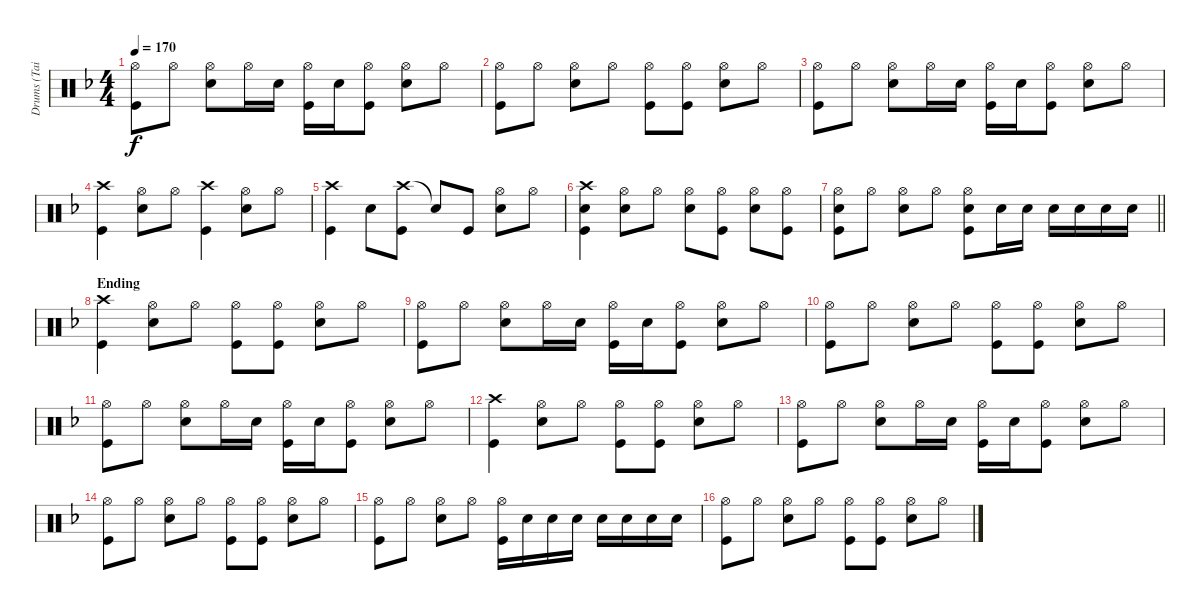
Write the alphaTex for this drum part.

\track ("Drums (Tainaka Ritsu)" "Drums (Tai") {instrument percussion}
\staff {score}
\articulation defaults
\ts (4 4)
\tempo 170
\clef neutral
\ks f
("Hi-Hat (open)" "Kick (hit)").8{dy f} "Hi-Hat (open)".8 ("Hi-Hat (open)" "Snare (hit) 2").8 "Hi-Hat (open)".16 "Snare (hit) 2".16 ("Hi-Hat (open)" "Kick (hit)").16 "Snare (hit) 2".16 ("Hi-Hat (open)" "Kick (hit)").8 ("Hi-Hat (open)" "Snare (hit) 2").8 "Hi-Hat (open)".8 |
("Hi-Hat (open)" "Kick (hit)").8 "Hi-Hat (open)".8 ("Hi-Hat (open)" "Snare (hit) 2").8 "Hi-Hat (open)".8 ("Hi-Hat (open)" "Kick (hit)").8 ("Hi-Hat (open)" "Kick (hit)").8 ("Hi-Hat (open)" "Snare (hit) 2").8 "Hi-Hat (open)".8 |
("Hi-Hat (open)" "Kick (hit)").8 "Hi-Hat (open)".8 ("Hi-Hat (open)" "Snare (hit) 2").8 "Hi-Hat (open)".16 "Snare (hit) 2".16 ("Hi-Hat (open)" "Kick (hit)").16 "Snare (hit) 2".16 ("Hi-Hat (open)" "Kick (hit)").8 ("Hi-Hat (open)" "Snare (hit) 2").8 "Hi-Hat (open)".8 |
("Crash high (hit)" "Kick (hit)").4 ("Hi-Hat (open)" "Snare (hit) 2").8 "Hi-Hat (open)".8 ("Crash high (hit)" "Kick (hit)").4 ("Hi-Hat (open)" "Snare (hit) 2").8 "Hi-Hat (open)".8 |
("Crash high (hit)" "Kick (hit)").4 "Snare (hit) 2".8 ("Crash high (hit)" "Kick (hit)").8 "Snare (hit)"{t}.8 "Kick (hit)".8 ("Hi-Hat (open)" "Snare (hit) 2").8 "Hi-Hat (open)".8 |
("Crash high (hit)" "Snare (hit) 2" "Kick (hit)").4 ("Hi-Hat (open)" "Snare (hit) 2").8 "Hi-Hat (open)".8 ("Hi-Hat (open)" "Snare (hit) 2").8 ("Hi-Hat (open)" "Kick (hit)").8 ("Hi-Hat (open)" "Snare (hit) 2").8 ("Hi-Hat (open)" "Kick (hit)").8 |
\barLineRight lightlight
("Hi-Hat (open)" "Snare (hit) 2" "Kick (hit)").8 "Hi-Hat (open)".8 ("Hi-Hat (open)" "Snare (hit) 2").8 "Hi-Hat (open)".8 ("Hi-Hat (open)" "Snare (hit) 2" "Kick (hit)").8 "Snare (hit) 2".16 "Snare (hit) 2".16 "Snare (hit) 2".16 "Snare (hit) 2".16 "Snare (hit) 2".16 "Snare (hit) 2".16 |
\section ("" "Ending")
("Crash high (hit)" "Kick (hit)").4 ("Hi-Hat (open)" "Snare (hit) 2").8 "Hi-Hat (open)".8 ("Hi-Hat (open)" "Kick (hit)").8 ("Hi-Hat (open)" "Kick (hit)").8 ("Hi-Hat (open)" "Snare (hit) 2").8 "Hi-Hat (open)".8 |
("Hi-Hat (open)" "Kick (hit)").8 "Hi-Hat (open)".8 ("Hi-Hat (open)" "Snare (hit) 2").8 "Hi-Hat (open)".16 "Snare (hit) 2".16 ("Hi-Hat (open)" "Kick (hit)").16 "Snare (hit) 2".16 ("Hi-Hat (open)" "Kick (hit)").8 ("Hi-Hat (open)" "Snare (hit) 2").8 "Hi-Hat (open)".8 |
("Hi-Hat (open)" "Kick (hit)").8 "Hi-Hat (open)".8 ("Hi-Hat (open)" "Snare (hit) 2").8 "Hi-Hat (open)".8 ("Hi-Hat (open)" "Kick (hit)").8 ("Hi-Hat (open)" "Kick (hit)").8 ("Hi-Hat (open)" "Snare (hit) 2").8 "Hi-Hat (open)".8 |
("Hi-Hat (open)" "Kick (hit)").8 "Hi-Hat (open)".8 ("Hi-Hat (open)" "Snare (hit) 2").8 "Hi-Hat (open)".16 "Snare (hit) 2".16 ("Hi-Hat (open)" "Kick (hit)").16 "Snare (hit) 2".16 ("Hi-Hat (open)" "Kick (hit)").8 ("Hi-Hat (open)" "Snare (hit) 2").8 "Hi-Hat (open)".8 |
("Crash high (hit)" "Kick (hit)").4 ("Hi-Hat (open)" "Snare (hit) 2").8 "Hi-Hat (open)".8 ("Hi-Hat (open)" "Kick (hit)").8 ("Hi-Hat (open)" "Kick (hit)").8 ("Hi-Hat (open)" "Snare (hit) 2").8 "Hi-Hat (open)".8 |
("Hi-Hat (open)" "Kick (hit)").8 "Hi-Hat (open)".8 ("Hi-Hat (open)" "Snare (hit) 2").8 "Hi-Hat (open)".16 "Snare (hit) 2".16 ("Hi-Hat (open)" "Kick (hit)").16 "Snare (hit) 2".16 ("Hi-Hat (open)" "Kick (hit)").8 ("Hi-Hat (open)" "Snare (hit) 2").8 "Hi-Hat (open)".8 |
("Hi-Hat (open)" "Kick (hit)").8 "Hi-Hat (open)".8 ("Hi-Hat (open)" "Snare (hit) 2").8 "Hi-Hat (open)".8 ("Hi-Hat (open)" "Kick (hit)").8 ("Hi-Hat (open)" "Kick (hit)").8 ("Hi-Hat (open)" "Snare (hit) 2").8 "Hi-Hat (open)".8 |
("Hi-Hat (open)" "Kick (hit)").8 "Hi-Hat (open)".8 ("Hi-Hat (open)" "Snare (hit) 2").8 "Hi-Hat (open)".8 ("Hi-Hat (open)" "Kick (hit)").16 "Snare (hit) 2".16 "Snare (hit) 2".16 "Snare (hit) 2".16 "Snare (hit) 2".16 "Snare (hit) 2".16 "Snare (hit) 2".16 "Snare (hit) 2".16 |
("Hi-Hat (open)" "Kick (hit)").8 "Hi-Hat (open)".8 ("Hi-Hat (open)" "Snare (hit) 2").8 "Hi-Hat (open)".8 ("Hi-Hat (open)" "Kick (hit)").8 ("Hi-Hat (open)" "Kick (hit)").8 ("Hi-Hat (open)" "Snare (hit) 2").8 "Hi-Hat (open)".8
